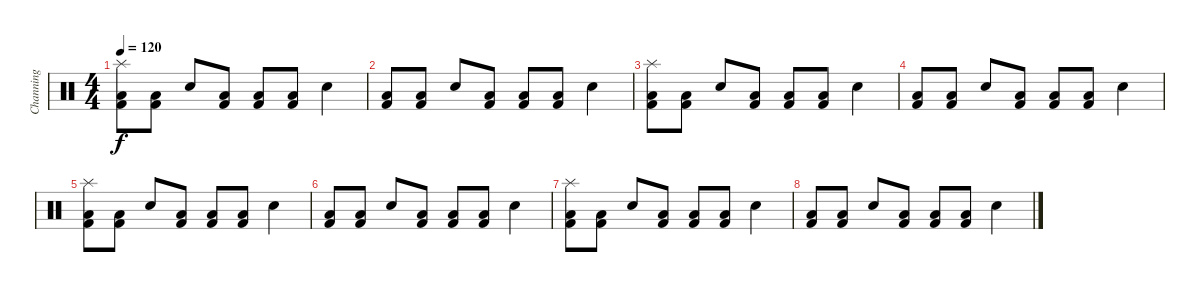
\track ("Channing" "Channing") {instrument percussion}
\staff {score}
\articulation defaults
\ts (4 4)
\tempo 120
\clef neutral
\ks c
("Splash (hit)" "Low Tom (hit)" "Kick (hit) 2").8{dy f} ("Low Tom (hit)" "Kick (hit) 2").8 "Snare (hit) 2".8 ("Low Tom (hit)" "Kick (hit) 2").8 ("Low Tom (hit)" "Kick (hit) 2").8 ("Low Tom (hit)" "Kick (hit) 2").8 "Snare (hit) 2".4 |
("Low Tom (hit)" "Kick (hit) 2").8 ("Low Tom (hit)" "Kick (hit) 2").8 "Snare (hit) 2".8 ("Low Tom (hit)" "Kick (hit) 2").8 ("Low Tom (hit)" "Kick (hit) 2").8 ("Low Tom (hit)" "Kick (hit) 2").8 "Snare (hit) 2".4 |
("Splash (hit)" "Low Tom (hit)" "Kick (hit) 2").8 ("Low Tom (hit)" "Kick (hit) 2").8 "Snare (hit) 2".8 ("Low Tom (hit)" "Kick (hit) 2").8 ("Low Tom (hit)" "Kick (hit) 2").8 ("Low Tom (hit)" "Kick (hit) 2").8 "Snare (hit) 2".4 |
("Low Tom (hit)" "Kick (hit) 2").8 ("Low Tom (hit)" "Kick (hit) 2").8 "Snare (hit) 2".8 ("Low Tom (hit)" "Kick (hit) 2").8 ("Low Tom (hit)" "Kick (hit) 2").8 ("Low Tom (hit)" "Kick (hit) 2").8 "Snare (hit) 2".4 |
("Splash (hit)" "Low Tom (hit)" "Kick (hit) 2").8 ("Low Tom (hit)" "Kick (hit) 2").8 "Snare (hit) 2".8 ("Low Tom (hit)" "Kick (hit) 2").8 ("Low Tom (hit)" "Kick (hit) 2").8 ("Low Tom (hit)" "Kick (hit) 2").8 "Snare (hit) 2".4 |
("Low Tom (hit)" "Kick (hit) 2").8 ("Low Tom (hit)" "Kick (hit) 2").8 "Snare (hit) 2".8 ("Low Tom (hit)" "Kick (hit) 2").8 ("Low Tom (hit)" "Kick (hit) 2").8 ("Low Tom (hit)" "Kick (hit) 2").8 "Snare (hit) 2".4 |
("Splash (hit)" "Low Tom (hit)" "Kick (hit) 2").8 ("Low Tom (hit)" "Kick (hit) 2").8 "Snare (hit) 2".8 ("Low Tom (hit)" "Kick (hit) 2").8 ("Low Tom (hit)" "Kick (hit) 2").8 ("Low Tom (hit)" "Kick (hit) 2").8 "Snare (hit) 2".4 |
("Low Tom (hit)" "Kick (hit) 2").8 ("Low Tom (hit)" "Kick (hit) 2").8 "Snare (hit) 2".8 ("Low Tom (hit)" "Kick (hit) 2").8 ("Low Tom (hit)" "Kick (hit) 2").8 ("Low Tom (hit)" "Kick (hit) 2").8 "Snare (hit) 2".4
